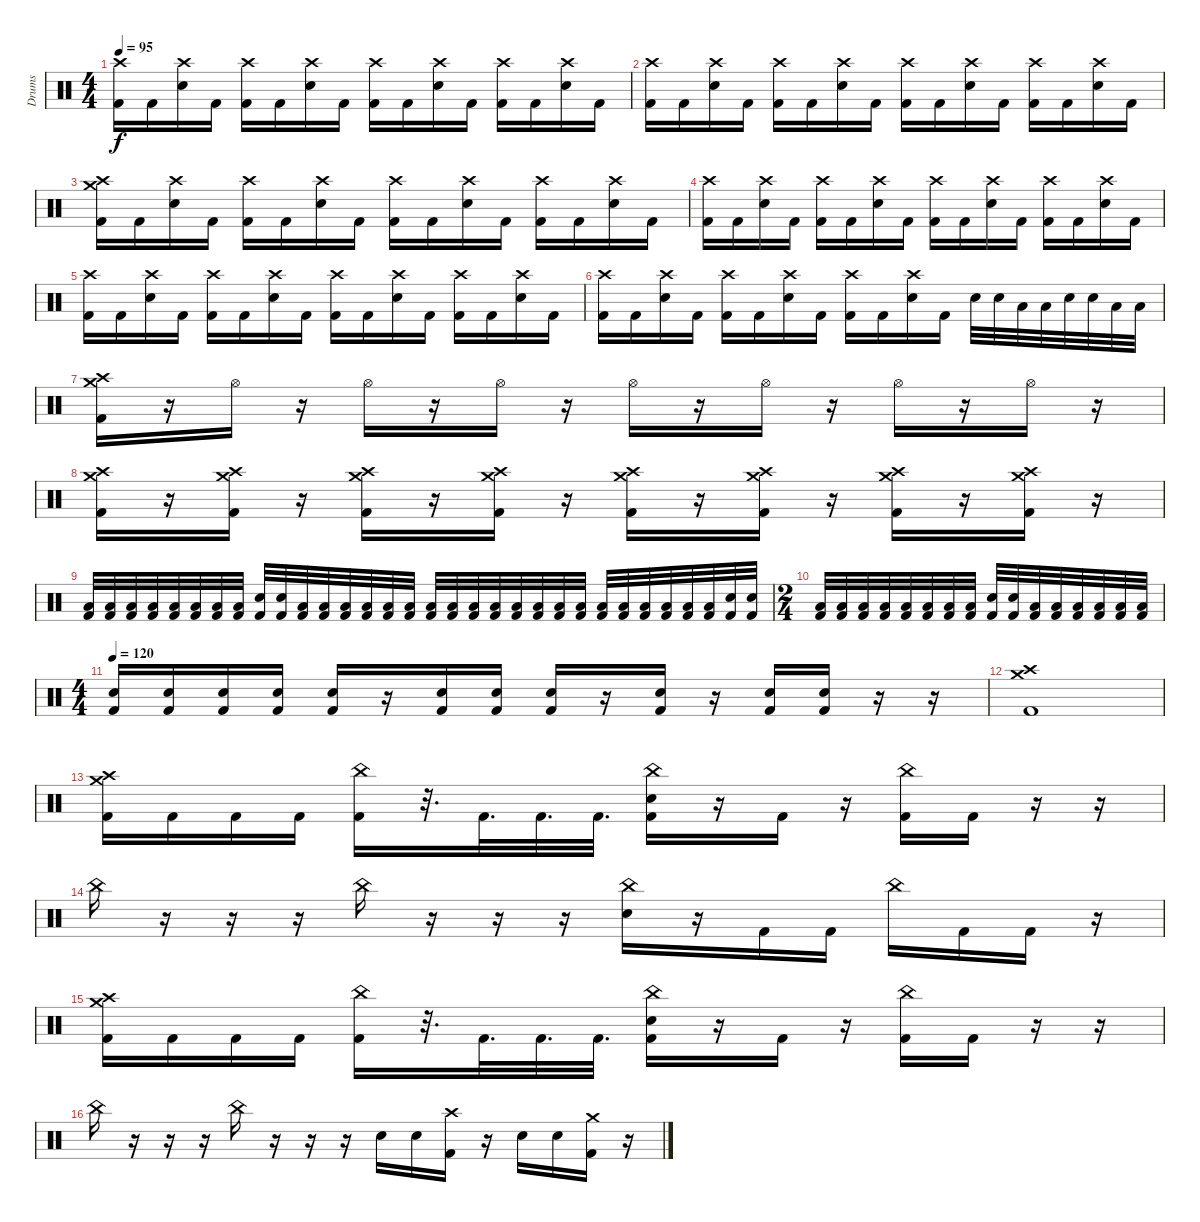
\track ("Drums" "Drums") {instrument percussion}
\staff {score}
\articulation defaults
\ts (4 4)
\tempo 95
\clef neutral
\ks c
("Crash high (hit)" "Kick (hit) 2").16{dy f} "Kick (hit) 2".16 ("Crash high (hit)" "Electric Snare (hit)").16 "Kick (hit) 2".16 ("Crash high (hit)" "Kick (hit) 2").16 "Kick (hit) 2".16 ("Crash high (hit)" "Electric Snare (hit)").16 "Kick (hit) 2".16 ("Crash high (hit)" "Kick (hit) 2").16 "Kick (hit) 2".16 ("Crash high (hit)" "Electric Snare (hit)").16 "Kick (hit) 2".16 ("Crash high (hit)" "Kick (hit) 2").16 "Kick (hit) 2".16 ("Crash high (hit)" "Electric Snare (hit)").16 "Kick (hit) 2".16 |
("Crash high (hit)" "Kick (hit) 2").16 "Kick (hit) 2".16 ("Crash high (hit)" "Electric Snare (hit)").16 "Kick (hit) 2".16 ("Crash high (hit)" "Kick (hit) 2").16 "Kick (hit) 2".16 ("Crash high (hit)" "Electric Snare (hit)").16 "Kick (hit) 2".16 ("Crash high (hit)" "Kick (hit) 2").16 "Kick (hit) 2".16 ("Crash high (hit)" "Electric Snare (hit)").16 "Kick (hit) 2".16 ("Crash high (hit)" "Kick (hit) 2").16 "Kick (hit) 2".16 ("Crash high (hit)" "Electric Snare (hit)").16 "Kick (hit) 2".16 |
("Crash medium (hit)" "Crash high (hit)" "Kick (hit) 2").16 "Kick (hit) 2".16 ("Crash high (hit)" "Electric Snare (hit)").16 "Kick (hit) 2".16 ("Crash high (hit)" "Kick (hit) 2").16 "Kick (hit) 2".16 ("Crash high (hit)" "Electric Snare (hit)").16 "Kick (hit) 2".16 ("Crash high (hit)" "Kick (hit) 2").16 "Kick (hit) 2".16 ("Crash high (hit)" "Electric Snare (hit)").16 "Kick (hit) 2".16 ("Crash high (hit)" "Kick (hit) 2").16 "Kick (hit) 2".16 ("Crash high (hit)" "Electric Snare (hit)").16 "Kick (hit) 2".16 |
("Crash high (hit)" "Kick (hit) 2").16 "Kick (hit) 2".16 ("Crash high (hit)" "Electric Snare (hit)").16 "Kick (hit) 2".16 ("Crash high (hit)" "Kick (hit) 2").16 "Kick (hit) 2".16 ("Crash high (hit)" "Electric Snare (hit)").16 "Kick (hit) 2".16 ("Crash high (hit)" "Kick (hit) 2").16 "Kick (hit) 2".16 ("Crash high (hit)" "Electric Snare (hit)").16 "Kick (hit) 2".16 ("Crash high (hit)" "Kick (hit) 2").16 "Kick (hit) 2".16 ("Crash high (hit)" "Electric Snare (hit)").16 "Kick (hit) 2".16 |
("Crash high (hit)" "Kick (hit) 2").16 "Kick (hit) 2".16 ("Crash high (hit)" "Electric Snare (hit)").16 "Kick (hit) 2".16 ("Crash high (hit)" "Kick (hit) 2").16 "Kick (hit) 2".16 ("Crash high (hit)" "Electric Snare (hit)").16 "Kick (hit) 2".16 ("Crash high (hit)" "Kick (hit) 2").16 "Kick (hit) 2".16 ("Crash high (hit)" "Electric Snare (hit)").16 "Kick (hit) 2".16 ("Crash high (hit)" "Kick (hit) 2").16 "Kick (hit) 2".16 ("Crash high (hit)" "Electric Snare (hit)").16 "Kick (hit) 2".16 |
("Crash high (hit)" "Kick (hit) 2").16 "Kick (hit) 2".16 ("Crash high (hit)" "Electric Snare (hit)").16 "Kick (hit) 2".16 ("Crash high (hit)" "Kick (hit) 2").16 "Kick (hit) 2".16 ("Crash high (hit)" "Electric Snare (hit)").16 "Kick (hit) 2".16 ("Crash high (hit)" "Kick (hit) 2").16 "Kick (hit) 2".16 ("Crash high (hit)" "Electric Snare (hit)").16 "Kick (hit) 2".16 "Electric Snare (hit)".32 "Electric Snare (hit)".32 "Low Tom (hit)".32 "Low Tom (hit)".32 "Electric Snare (hit)".32 "Electric Snare (hit)".32 "Low Floor Tom (hit)".32 "Low Floor Tom (hit)".32 |
("Crash medium (hit)" "Crash high (hit)" "Kick (hit) 2").16 r.16 "Hi-Hat (open)".16 r.16 "Hi-Hat (open)".16 r.16 "Hi-Hat (open)".16 r.16 "Hi-Hat (open)".16 r.16 "Hi-Hat (open)".16 r.16 "Hi-Hat (open)".16 r.16 "Hi-Hat (open)".16 r.16 |
("Crash medium (hit)" "Crash high (hit)" "Kick (hit) 2").16 r.16 ("Crash medium (hit)" "Crash high (hit)" "Kick (hit) 2").16 r.16 ("Crash medium (hit)" "Crash high (hit)" "Kick (hit) 2").16 r.16 ("Crash medium (hit)" "Crash high (hit)" "Kick (hit) 2").16 r.16 ("Crash medium (hit)" "Crash high (hit)" "Kick (hit) 2").16 r.16 ("Crash medium (hit)" "Crash high (hit)" "Kick (hit) 2").16 r.16 ("Crash medium (hit)" "Crash high (hit)" "Kick (hit) 2").16 r.16 ("Crash medium (hit)" "Crash high (hit)" "Kick (hit) 2").16 r.16 |
("Low Floor Tom (hit)" "Kick (hit) 2").32 ("Low Tom (hit)" "Kick (hit) 2").32 ("Low Floor Tom (hit)" "Kick (hit) 2").32 ("Low Tom (hit)" "Kick (hit) 2").32 ("Low Floor Tom (hit)" "Kick (hit) 2").32 ("Low Tom (hit)" "Kick (hit) 2").32 ("Low Floor Tom (hit)" "Kick (hit) 2").32 ("Low Tom (hit)" "Kick (hit) 2").32 ("Electric Snare (hit)" "Kick (hit) 2").32 ("Electric Snare (hit)" "Kick (hit) 2").32 ("Low Floor Tom (hit)" "Kick (hit) 2").32 ("Low Tom (hit)" "Kick (hit) 2").32 ("Low Floor Tom (hit)" "Kick (hit) 2").32 ("Low Tom (hit)" "Kick (hit) 2").32 ("Low Floor Tom (hit)" "Kick (hit) 2").32 ("Low Tom (hit)" "Kick (hit) 2").32 ("Low Floor Tom (hit)" "Kick (hit) 2").32 ("Low Tom (hit)" "Kick (hit) 2").32 ("Low Floor Tom (hit)" "Kick (hit) 2").32 ("Low Tom (hit)" "Kick (hit) 2").32 ("Low Floor Tom (hit)" "Kick (hit) 2").32 ("Low Tom (hit)" "Kick (hit) 2").32 ("Low Floor Tom (hit)" "Kick (hit) 2").32 ("Low Tom (hit)" "Kick (hit) 2").32 ("Low Floor Tom (hit)" "Kick (hit) 2").32 ("Low Tom (hit)" "Kick (hit) 2").32 ("Low Floor Tom (hit)" "Kick (hit) 2").32 ("Low Tom (hit)" "Kick (hit) 2").32 ("Low Floor Tom (hit)" "Kick (hit) 2").32 ("Low Tom (hit)" "Kick (hit) 2").32 ("Electric Snare (hit)" "Kick (hit) 2").32 ("Electric Snare (hit)" "Kick (hit) 2").32 |
\ts (2 4)
("Low Floor Tom (hit)" "Kick (hit) 2").32 ("Low Tom (hit)" "Kick (hit) 2").32 ("Low Floor Tom (hit)" "Kick (hit) 2").32 ("Low Tom (hit)" "Kick (hit) 2").32 ("Low Floor Tom (hit)" "Kick (hit) 2").32 ("Low Tom (hit)" "Kick (hit) 2").32 ("Low Floor Tom (hit)" "Kick (hit) 2").32 ("Low Tom (hit)" "Kick (hit) 2").32 ("Electric Snare (hit)" "Kick (hit) 2").32 ("Electric Snare (hit)" "Kick (hit) 2").32 ("Low Floor Tom (hit)" "Kick (hit) 2").32 ("Low Tom (hit)" "Kick (hit) 2").32 ("Low Floor Tom (hit)" "Kick (hit) 2").32 ("Low Tom (hit)" "Kick (hit) 2").32 ("Low Floor Tom (hit)" "Kick (hit) 2").32 ("Low Tom (hit)" "Kick (hit) 2").32 |
\ts (4 4)
\tempo 120
("Electric Snare (hit)" "Kick (hit) 2").16 ("Electric Snare (hit)" "Kick (hit) 2").16 ("Electric Snare (hit)" "Kick (hit) 2").16 ("Electric Snare (hit)" "Kick (hit) 2").16 ("Electric Snare (hit)" "Kick (hit) 2").16 r.16 ("Electric Snare (hit)" "Kick (hit) 2").16 ("Electric Snare (hit)" "Kick (hit) 2").16 ("Electric Snare (hit)" "Kick (hit) 2").16 r.16 ("Electric Snare (hit)" "Kick (hit) 2").16 r.16 ("Electric Snare (hit)" "Kick (hit) 2").16 ("Electric Snare (hit)" "Kick (hit) 2").16 r.16 r.16 |
("Crash medium (hit)" "Crash high (hit)" "Kick (hit) 2").1 |
("Crash medium (hit)" "Crash high (hit)" "Kick (hit) 2").16 "Kick (hit) 2".16 "Kick (hit) 2".16 "Kick (hit) 2".16 ("China (hit)" "Kick (hit) 2").16 r.32{d} "Kick (hit) 2".32{d} "Kick (hit) 2".32{d} "Kick (hit) 2".32{d} ("China (hit)" "Electric Snare (hit)" "Kick (hit) 2").16 r.16 "Kick (hit) 2".16 r.16 ("China (hit)" "Kick (hit) 2").16 "Kick (hit) 2".16 r.16 r.16 |
"China (hit)".16 r.16 r.16 r.16 "China (hit)".16 r.16 r.16 r.16 ("China (hit)" "Electric Snare (hit)").16 r.16 "Kick (hit) 2".16 "Kick (hit) 2".16 "China (hit)".16 "Kick (hit) 2".16 "Kick (hit) 2".16 r.16 |
("Crash medium (hit)" "Crash high (hit)" "Kick (hit) 2").16 "Kick (hit) 2".16 "Kick (hit) 2".16 "Kick (hit) 2".16 ("China (hit)" "Kick (hit) 2").16 r.32{d} "Kick (hit) 2".32{d} "Kick (hit) 2".32{d} "Kick (hit) 2".32{d} ("China (hit)" "Electric Snare (hit)" "Kick (hit) 2").16 r.16 "Kick (hit) 2".16 r.16 ("China (hit)" "Kick (hit) 2").16 "Kick (hit) 2".16 r.16 r.16 |
"China (hit)".16 r.16 r.16 r.16 "China (hit)".16 r.16 r.16 r.16 "Electric Snare (hit)".16 "Electric Snare (hit)".16 ("Crash high (hit)" "Kick (hit) 2").16 r.16 "Electric Snare (hit)".16 "Electric Snare (hit)".16 ("Crash medium (hit)" "Kick (hit) 2").16 r.16
